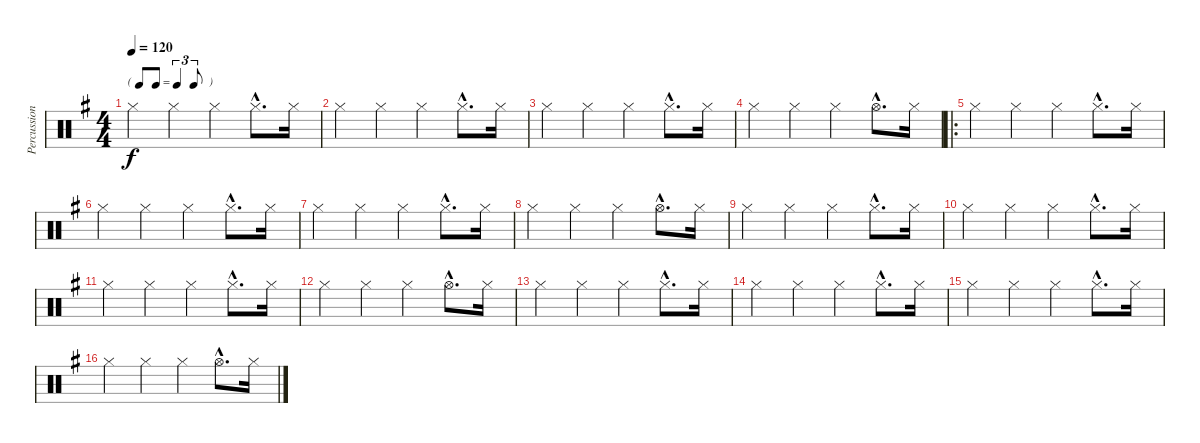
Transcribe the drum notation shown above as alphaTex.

\track ("Percussion" "Percussion") {instrument percussion}
\staff {score}
\articulation defaults
\ts (4 4)
\tf triplet8th
\tempo 120
\clef neutral
\ks g "Hi-Hat (closed)".4{dy f} "Hi-Hat (closed)".4 "Hi-Hat (closed)".4 "Hi-Hat (closed)"{hac}.8{d} "Hi-Hat (closed)".16
|
"Hi-Hat (closed)".4 "Hi-Hat (closed)".4 "Hi-Hat (closed)".4 "Hi-Hat (closed)"{hac}.8{d} "Hi-Hat (closed)".16 |
"Hi-Hat (closed)".4 "Hi-Hat (closed)".4 "Hi-Hat (closed)".4 "Hi-Hat (closed)"{hac}.8{d} "Hi-Hat (closed)".16 |
"Hi-Hat (closed)".4 "Hi-Hat (closed)".4 "Hi-Hat (closed)".4 "Hi-Hat (open)"{hac}.8{d} "Hi-Hat (closed)".16 |
\ro "Hi-Hat (closed)".4 "Hi-Hat (closed)".4 "Hi-Hat (closed)".4 "Hi-Hat (closed)"{hac}.8{d} "Hi-Hat (closed)".16
|
"Hi-Hat (closed)".4 "Hi-Hat (closed)".4 "Hi-Hat (closed)".4 "Hi-Hat (closed)"{hac}.8{d} "Hi-Hat (closed)".16 |
"Hi-Hat (closed)".4 "Hi-Hat (closed)".4 "Hi-Hat (closed)".4 "Hi-Hat (closed)"{hac}.8{d} "Hi-Hat (closed)".16 |
"Hi-Hat (closed)".4 "Hi-Hat (closed)".4 "Hi-Hat (closed)".4 "Hi-Hat (open)"{hac}.8{d} "Hi-Hat (closed)".16 |
"Hi-Hat (closed)".4 "Hi-Hat (closed)".4 "Hi-Hat (closed)".4 "Hi-Hat (closed)"{hac}.8{d} "Hi-Hat (closed)".16 |
"Hi-Hat (closed)".4 "Hi-Hat (closed)".4 "Hi-Hat (closed)".4 "Hi-Hat (closed)"{hac}.8{d} "Hi-Hat (closed)".16 |
"Hi-Hat (closed)".4 "Hi-Hat (closed)".4 "Hi-Hat (closed)".4 "Hi-Hat (closed)"{hac}.8{d} "Hi-Hat (closed)".16 |
"Hi-Hat (closed)".4 "Hi-Hat (closed)".4 "Hi-Hat (closed)".4 "Hi-Hat (open)"{hac}.8{d} "Hi-Hat (closed)".16 |
"Hi-Hat (closed)".4 "Hi-Hat (closed)".4 "Hi-Hat (closed)".4 "Hi-Hat (closed)"{hac}.8{d} "Hi-Hat (closed)".16 |
"Hi-Hat (closed)".4 "Hi-Hat (closed)".4 "Hi-Hat (closed)".4 "Hi-Hat (closed)"{hac}.8{d} "Hi-Hat (closed)".16 |
"Hi-Hat (closed)".4 "Hi-Hat (closed)".4 "Hi-Hat (closed)".4 "Hi-Hat (closed)"{hac}.8{d} "Hi-Hat (closed)".16 |
"Hi-Hat (closed)".4 "Hi-Hat (closed)".4 "Hi-Hat (closed)".4 "Hi-Hat (open)"{hac}.8{d} "Hi-Hat (closed)".16
